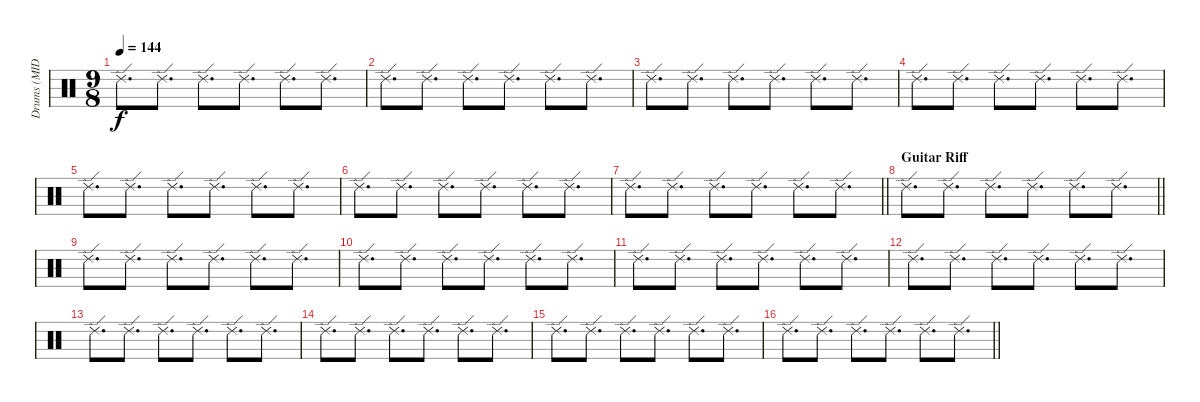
\track ("Drums (MIDI!)" "Drums (MID") {instrument percussion}
\staff {score}
\articulation defaults
\ts (9 8)
\tempo 144
\clef neutral
\ks c "Ride (edge) 2".8{d dy f} "Ride (edge) 2".8{d} "Ride (edge) 2".8{d} "Ride (edge) 2".8{d} "Ride (edge) 2".8{d} "Ride (edge) 2".8{d}
|
"Ride (edge) 2".8{d} "Ride (edge) 2".8{d} "Ride (edge) 2".8{d} "Ride (edge) 2".8{d} "Ride (edge) 2".8{d} "Ride (edge) 2".8{d} |
"Ride (edge) 2".8{d} "Ride (edge) 2".8{d} "Ride (edge) 2".8{d} "Ride (edge) 2".8{d} "Ride (edge) 2".8{d} "Ride (edge) 2".8{d} |
"Ride (edge) 2".8{d} "Ride (edge) 2".8{d} "Ride (edge) 2".8{d} "Ride (edge) 2".8{d} "Ride (edge) 2".8{d} "Ride (edge) 2".8{d} |
"Ride (edge) 2".8{d} "Ride (edge) 2".8{d} "Ride (edge) 2".8{d} "Ride (edge) 2".8{d} "Ride (edge) 2".8{d} "Ride (edge) 2".8{d} |
"Ride (edge) 2".8{d} "Ride (edge) 2".8{d} "Ride (edge) 2".8{d} "Ride (edge) 2".8{d} "Ride (edge) 2".8{d} "Ride (edge) 2".8{d} |
\barLineRight lightlight "Ride (edge) 2".8{d} "Ride (edge) 2".8{d} "Ride (edge) 2".8{d} "Ride (edge) 2".8{d} "Ride (edge) 2".8{d} "Ride (edge) 2".8{d}
|
\section ("" "Guitar Riff")
\barLineRight lightlight "Ride (edge) 2".8{d} "Ride (edge) 2".8{d} "Ride (edge) 2".8{d} "Ride (edge) 2".8{d} "Ride (edge) 2".8{d} "Ride (edge) 2".8{d}
|
"Ride (edge) 2".8{d} "Ride (edge) 2".8{d} "Ride (edge) 2".8{d} "Ride (edge) 2".8{d} "Ride (edge) 2".8{d} "Ride (edge) 2".8{d} |
"Ride (edge) 2".8{d} "Ride (edge) 2".8{d} "Ride (edge) 2".8{d} "Ride (edge) 2".8{d} "Ride (edge) 2".8{d} "Ride (edge) 2".8{d} |
"Ride (edge) 2".8{d} "Ride (edge) 2".8{d} "Ride (edge) 2".8{d} "Ride (edge) 2".8{d} "Ride (edge) 2".8{d} "Ride (edge) 2".8{d} |
"Ride (edge) 2".8{d} "Ride (edge) 2".8{d} "Ride (edge) 2".8{d} "Ride (edge) 2".8{d} "Ride (edge) 2".8{d} "Ride (edge) 2".8{d} |
"Ride (edge) 2".8{d} "Ride (edge) 2".8{d} "Ride (edge) 2".8{d} "Ride (edge) 2".8{d} "Ride (edge) 2".8{d} "Ride (edge) 2".8{d} |
"Ride (edge) 2".8{d} "Ride (edge) 2".8{d} "Ride (edge) 2".8{d} "Ride (edge) 2".8{d} "Ride (edge) 2".8{d} "Ride (edge) 2".8{d} |
"Ride (edge) 2".8{d} "Ride (edge) 2".8{d} "Ride (edge) 2".8{d} "Ride (edge) 2".8{d} "Ride (edge) 2".8{d} "Ride (edge) 2".8{d} |
\barLineRight lightlight "Ride (edge) 2".8{d} "Ride (edge) 2".8{d} "Ride (edge) 2".8{d} "Ride (edge) 2".8{d} "Ride (edge) 2".8{d} "Ride (edge) 2".8{d}
